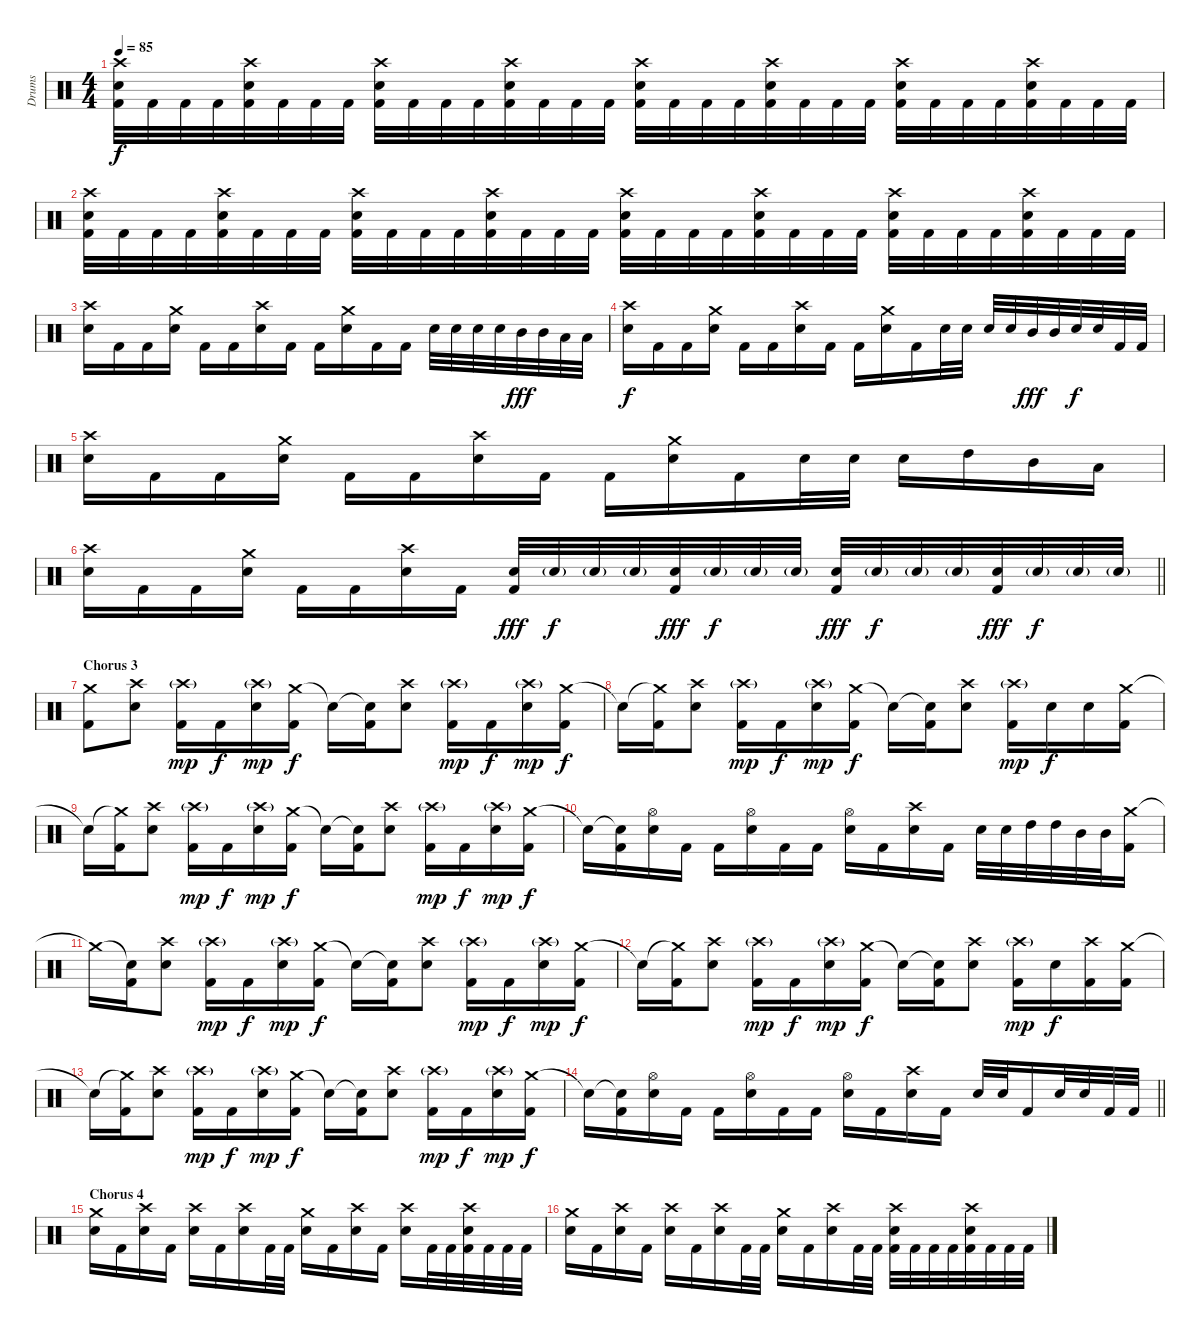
\track ("Drums" "Drums") {instrument percussion}
\staff {score}
\articulation defaults
\ts (4 4)
\tempo 85
\clef neutral
\ks c
("Crash high (hit)" "Electric Snare (hit)" "Kick (hit) 2").32{dy f} "Kick (hit) 2".32 "Kick (hit) 2".32 "Kick (hit) 2".32 ("Crash high (hit)" "Electric Snare (hit)" "Kick (hit) 2").32 "Kick (hit) 2".32 "Kick (hit) 2".32 "Kick (hit) 2".32 ("Crash high (hit)" "Electric Snare (hit)" "Kick (hit) 2").32 "Kick (hit) 2".32 "Kick (hit) 2".32 "Kick (hit) 2".32 ("Crash high (hit)" "Electric Snare (hit)" "Kick (hit) 2").32 "Kick (hit) 2".32 "Kick (hit) 2".32 "Kick (hit) 2".32 ("Crash high (hit)" "Electric Snare (hit)" "Kick (hit) 2").32 "Kick (hit) 2".32 "Kick (hit) 2".32 "Kick (hit) 2".32 ("Crash high (hit)" "Electric Snare (hit)" "Kick (hit) 2").32 "Kick (hit) 2".32 "Kick (hit) 2".32 "Kick (hit) 2".32 ("Crash high (hit)" "Electric Snare (hit)" "Kick (hit) 2").32 "Kick (hit) 2".32 "Kick (hit) 2".32 "Kick (hit) 2".32 ("Crash high (hit)" "Electric Snare (hit)" "Kick (hit) 2").32 "Kick (hit) 2".32 "Kick (hit) 2".32 "Kick (hit) 2".32 |
("Crash high (hit)" "Electric Snare (hit)" "Kick (hit) 2").32 "Kick (hit) 2".32 "Kick (hit) 2".32 "Kick (hit) 2".32 ("Crash high (hit)" "Electric Snare (hit)" "Kick (hit) 2").32 "Kick (hit) 2".32 "Kick (hit) 2".32 "Kick (hit) 2".32 ("Crash high (hit)" "Electric Snare (hit)" "Kick (hit) 2").32 "Kick (hit) 2".32 "Kick (hit) 2".32 "Kick (hit) 2".32 ("Crash high (hit)" "Electric Snare (hit)" "Kick (hit) 2").32 "Kick (hit) 2".32 "Kick (hit) 2".32 "Kick (hit) 2".32 ("Crash high (hit)" "Electric Snare (hit)" "Kick (hit) 2").32 "Kick (hit) 2".32 "Kick (hit) 2".32 "Kick (hit) 2".32 ("Crash high (hit)" "Electric Snare (hit)" "Kick (hit) 2").32 "Kick (hit) 2".32 "Kick (hit) 2".32 "Kick (hit) 2".32 ("Crash high (hit)" "Electric Snare (hit)" "Kick (hit) 2").32 "Kick (hit) 2".32 "Kick (hit) 2".32 "Kick (hit) 2".32 ("Crash high (hit)" "Electric Snare (hit)" "Kick (hit) 2").32 "Kick (hit) 2".32 "Kick (hit) 2".32 "Kick (hit) 2".32 |
("Crash high (hit)" "Electric Snare (hit)").16 "Kick (hit) 2".16 "Kick (hit) 2".16 ("Crash medium (hit)" "Electric Snare (hit)").16 "Kick (hit) 2".16 "Kick (hit) 2".16 ("Crash high (hit)" "Electric Snare (hit)").16 "Kick (hit) 2".16 "Kick (hit) 2".16 ("Crash medium (hit)" "Electric Snare (hit)").16 "Kick (hit) 2".16 "Kick (hit) 2".16 "Electric Snare (hit)".32 "Electric Snare (hit)".32 "Electric Snare (hit)".32 "Electric Snare (hit)".32 "Mid Tom (hit)".32{dy fff} "Mid Tom (hit)".32 "Low Tom (hit)".32 "Low Tom (hit)".32 |
("Crash high (hit)" "Electric Snare (hit)").16{dy f} "Kick (hit) 2".16 "Kick (hit) 2".16 ("Crash medium (hit)" "Electric Snare (hit)").16 "Kick (hit) 2".16 "Kick (hit) 2".16 ("Crash high (hit)" "Electric Snare (hit)").16 "Kick (hit) 2".16 "Kick (hit) 2".16 ("Crash medium (hit)" "Electric Snare (hit)").16 "Kick (hit) 2".16 "Electric Snare (hit)".32 "Electric Snare (hit)".32 "Electric Snare (hit)".32 "Electric Snare (hit)".32 "Mid Tom (hit)".32{dy fff} "Mid Tom (hit)".32 "Electric Snare (hit)".32{dy f} "Electric Snare (hit)".32 "Kick (hit) 2".32 "Kick (hit) 2".32 |
("Crash high (hit)" "Electric Snare (hit)").16 "Kick (hit) 2".16 "Kick (hit) 2".16 ("Crash medium (hit)" "Electric Snare (hit)").16 "Kick (hit) 2".16 "Kick (hit) 2".16 ("Crash high (hit)" "Electric Snare (hit)").16 "Kick (hit) 2".16 "Kick (hit) 2".16 ("Crash medium (hit)" "Electric Snare (hit)").16 "Kick (hit) 2".16 "Electric Snare (hit)".32 "Electric Snare (hit)".32 "Electric Snare (hit)".16 "High Tom (hit)".16 "Mid Tom (hit)".16 "Low Tom (hit)".16 |
\barLineRight lightlight
("Crash high (hit)" "Electric Snare (hit)").16 "Kick (hit) 2".16 "Kick (hit) 2".16 ("Crash medium (hit)" "Electric Snare (hit)").16 "Kick (hit) 2".16 "Kick (hit) 2".16 ("Crash high (hit)" "Electric Snare (hit)").16 "Kick (hit) 2".16 ("Electric Snare (hit)" "Kick (hit) 2").32{dy fff} "Electric Snare (hit)"{g}.32{dy f} "Electric Snare (hit)"{g}.32 "Electric Snare (hit)"{g}.32 ("Electric Snare (hit)" "Kick (hit) 2").32{dy fff} "Electric Snare (hit)"{g}.32{dy f} "Electric Snare (hit)"{g}.32 "Electric Snare (hit)"{g}.32 ("Electric Snare (hit)" "Kick (hit) 2").32{dy fff} "Electric Snare (hit)"{g}.32{dy f} "Electric Snare (hit)"{g}.32 "Electric Snare (hit)"{g}.32 ("Electric Snare (hit)" "Kick (hit) 2").32{dy fff} "Electric Snare (hit)"{g}.32{dy f} "Electric Snare (hit)"{g}.32 "Electric Snare (hit)"{g}.32 |
\section ("" "Chorus 3")
("Crash medium (hit)" "Kick (hit) 2").8 ("Crash high (hit)" "Electric Snare (hit)").8 ("Crash high (hit)"{g} "Kick (hit) 2").16{dy mp} "Kick (hit) 2".16{dy f} ("Crash high (hit)"{g} "Electric Snare (hit)").16{dy mp} ("Crash medium (hit)" "Kick (hit) 2").16{dy f} "Snare (hit)"{t}.16 ("Snare (hit)"{t} "Kick (hit) 2").16 ("Crash high (hit)" "Electric Snare (hit)").8 ("Crash high (hit)"{g} "Kick (hit) 2").16{dy mp} "Kick (hit) 2".16{dy f} ("Crash high (hit)"{g} "Electric Snare (hit)").16{dy mp} ("Crash medium (hit)" "Kick (hit) 2").16{dy f} |
"Snare (hit)"{t}.16 ("Crash medium (hit)"{t} "Kick (hit) 2").16 ("Crash high (hit)" "Electric Snare (hit)").8 ("Crash high (hit)"{g} "Kick (hit) 2").16{dy mp} "Kick (hit) 2".16{dy f} ("Crash high (hit)"{g} "Electric Snare (hit)").16{dy mp} ("Crash medium (hit)" "Kick (hit) 2").16{dy f} "Snare (hit)"{t}.16 ("Snare (hit)"{t} "Kick (hit) 2").16 ("Crash high (hit)" "Electric Snare (hit)").8 ("Crash high (hit)"{g} "Kick (hit) 2").16{dy mp} "Electric Snare (hit)".16{dy f} "Electric Snare (hit)".16 ("Crash medium (hit)" "Kick (hit) 2").16 |
"Snare (hit)"{t}.16 ("Crash medium (hit)"{t} "Kick (hit) 2").16 ("Crash high (hit)" "Electric Snare (hit)").8 ("Crash high (hit)"{g} "Kick (hit) 2").16{dy mp} "Kick (hit) 2".16{dy f} ("Crash high (hit)"{g} "Electric Snare (hit)").16{dy mp} ("Crash medium (hit)" "Kick (hit) 2").16{dy f} "Snare (hit)"{t}.16 ("Snare (hit)"{t} "Kick (hit) 2").16 ("Crash high (hit)" "Electric Snare (hit)").8 ("Crash high (hit)"{g} "Kick (hit) 2").16{dy mp} "Kick (hit) 2".16{dy f} ("Crash high (hit)"{g} "Electric Snare (hit)").16{dy mp} ("Crash medium (hit)" "Kick (hit) 2").16{dy f} |
"Snare (hit)"{t}.16 ("Snare (hit)"{t} "Kick (hit) 2").16 ("Hi-Hat (open)" "Electric Snare (hit)").16 "Kick (hit) 2".16 "Kick (hit) 2".16 ("Hi-Hat (open)" "Electric Snare (hit)").16 "Kick (hit) 2".16 "Kick (hit) 2".16 ("Hi-Hat (open)" "Electric Snare (hit)").16 "Kick (hit) 2".16 ("Crash high (hit)" "Electric Snare (hit)").16 "Kick (hit) 2".16 "Electric Snare (hit)".32 "Electric Snare (hit)".32 "High Tom (hit)".32 "High Tom (hit)".32 "Mid Tom (hit)".32 "Mid Tom (hit)".32 ("Crash medium (hit)" "Kick (hit) 2").16 |
"Crash medium (hit)"{t}.16 ("Snare (hit)"{t} "Kick (hit) 2").16 ("Crash high (hit)" "Electric Snare (hit)").8 ("Crash high (hit)"{g} "Kick (hit) 2").16{dy mp} "Kick (hit) 2".16{dy f} ("Crash high (hit)"{g} "Electric Snare (hit)").16{dy mp} ("Crash medium (hit)" "Kick (hit) 2").16{dy f} "Snare (hit)"{t}.16 ("Snare (hit)"{t} "Kick (hit) 2").16 ("Crash high (hit)" "Electric Snare (hit)").8 ("Crash high (hit)"{g} "Kick (hit) 2").16{dy mp} "Kick (hit) 2".16{dy f} ("Crash high (hit)"{g} "Electric Snare (hit)").16{dy mp} ("Crash medium (hit)" "Kick (hit) 2").16{dy f} |
"Snare (hit)"{t}.16 ("Crash medium (hit)"{t} "Kick (hit) 2").16 ("Crash high (hit)" "Electric Snare (hit)").8 ("Crash high (hit)"{g} "Kick (hit) 2").16{dy mp} "Kick (hit) 2".16{dy f} ("Crash high (hit)"{g} "Electric Snare (hit)").16{dy mp} ("Crash medium (hit)" "Kick (hit) 2").16{dy f} "Snare (hit)"{t}.16 ("Snare (hit)"{t} "Kick (hit) 2").16 ("Crash high (hit)" "Electric Snare (hit)").8 ("Crash high (hit)"{g} "Kick (hit) 2").16{dy mp} "Electric Snare (hit)".16{dy f} ("Crash high (hit)" "Kick (hit) 2").16 ("Crash medium (hit)" "Kick (hit) 2").16 |
"Snare (hit)"{t}.16 ("Crash medium (hit)"{t} "Kick (hit) 2").16 ("Crash high (hit)" "Electric Snare (hit)").8 ("Crash high (hit)"{g} "Kick (hit) 2").16{dy mp} "Kick (hit) 2".16{dy f} ("Crash high (hit)"{g} "Electric Snare (hit)").16{dy mp} ("Crash medium (hit)" "Kick (hit) 2").16{dy f} "Snare (hit)"{t}.16 ("Snare (hit)"{t} "Kick (hit) 2").16 ("Crash high (hit)" "Electric Snare (hit)").8 ("Crash high (hit)"{g} "Kick (hit) 2").16{dy mp} "Kick (hit) 2".16{dy f} ("Crash high (hit)"{g} "Electric Snare (hit)").16{dy mp} ("Crash medium (hit)" "Kick (hit) 2").16{dy f} |
\barLineRight lightlight "Snare (hit)"{t}.16
("Snare (hit)"{t} "Kick (hit) 2").16 ("Hi-Hat (open)" "Electric Snare (hit)").16 "Kick (hit) 2".16 "Kick (hit) 2".16 ("Hi-Hat (open)" "Electric Snare (hit)").16 "Kick (hit) 2".16 "Kick (hit) 2".16 ("Hi-Hat (open)" "Electric Snare (hit)").16 "Kick (hit) 2".16 ("Crash high (hit)" "Electric Snare (hit)").16 "Kick (hit) 2".16 "Electric Snare (hit)".32 "Electric Snare (hit)".32 "Kick (hit) 2".16 "Electric Snare (hit)".32 "Electric Snare (hit)".32 "Kick (hit) 2".32 "Kick (hit) 2".32 |
\section ("" "Chorus 4")
("Crash medium (hit)" "Electric Snare (hit)").16 "Kick (hit) 2".16 ("Crash high (hit)" "Electric Snare (hit)").16 "Kick (hit) 2".16 ("Crash high (hit)" "Electric Snare (hit)").16 "Kick (hit) 2".16 ("Crash high (hit)" "Electric Snare (hit)").16 "Kick (hit) 2".32 "Kick (hit) 2".32 ("Crash medium (hit)" "Electric Snare (hit)").16 "Kick (hit) 2".16 ("Crash high (hit)" "Electric Snare (hit)").16 "Kick (hit) 2".16 ("Crash high (hit)" "Electric Snare (hit)").16 "Kick (hit) 2".32 "Kick (hit) 2".32 ("Crash high (hit)" "Electric Snare (hit)" "Kick (hit) 2").32 "Kick (hit) 2".32 "Kick (hit) 2".32 "Kick (hit) 2".32 |
("Crash medium (hit)" "Electric Snare (hit)").16 "Kick (hit) 2".16 ("Crash high (hit)" "Electric Snare (hit)").16 "Kick (hit) 2".16 ("Crash high (hit)" "Electric Snare (hit)").16 "Kick (hit) 2".16 ("Crash high (hit)" "Electric Snare (hit)").16 "Kick (hit) 2".32 "Kick (hit) 2".32 ("Crash medium (hit)" "Electric Snare (hit)").16 "Kick (hit) 2".16 ("Crash high (hit)" "Electric Snare (hit)").16 "Kick (hit) 2".32 "Kick (hit) 2".32 ("Crash high (hit)" "Electric Snare (hit)" "Kick (hit) 2").32 "Kick (hit) 2".32 "Kick (hit) 2".32 "Kick (hit) 2".32 ("Crash high (hit)" "Electric Snare (hit)" "Kick (hit) 2").32 "Kick (hit) 2".32 "Kick (hit) 2".32 "Kick (hit) 2".32
